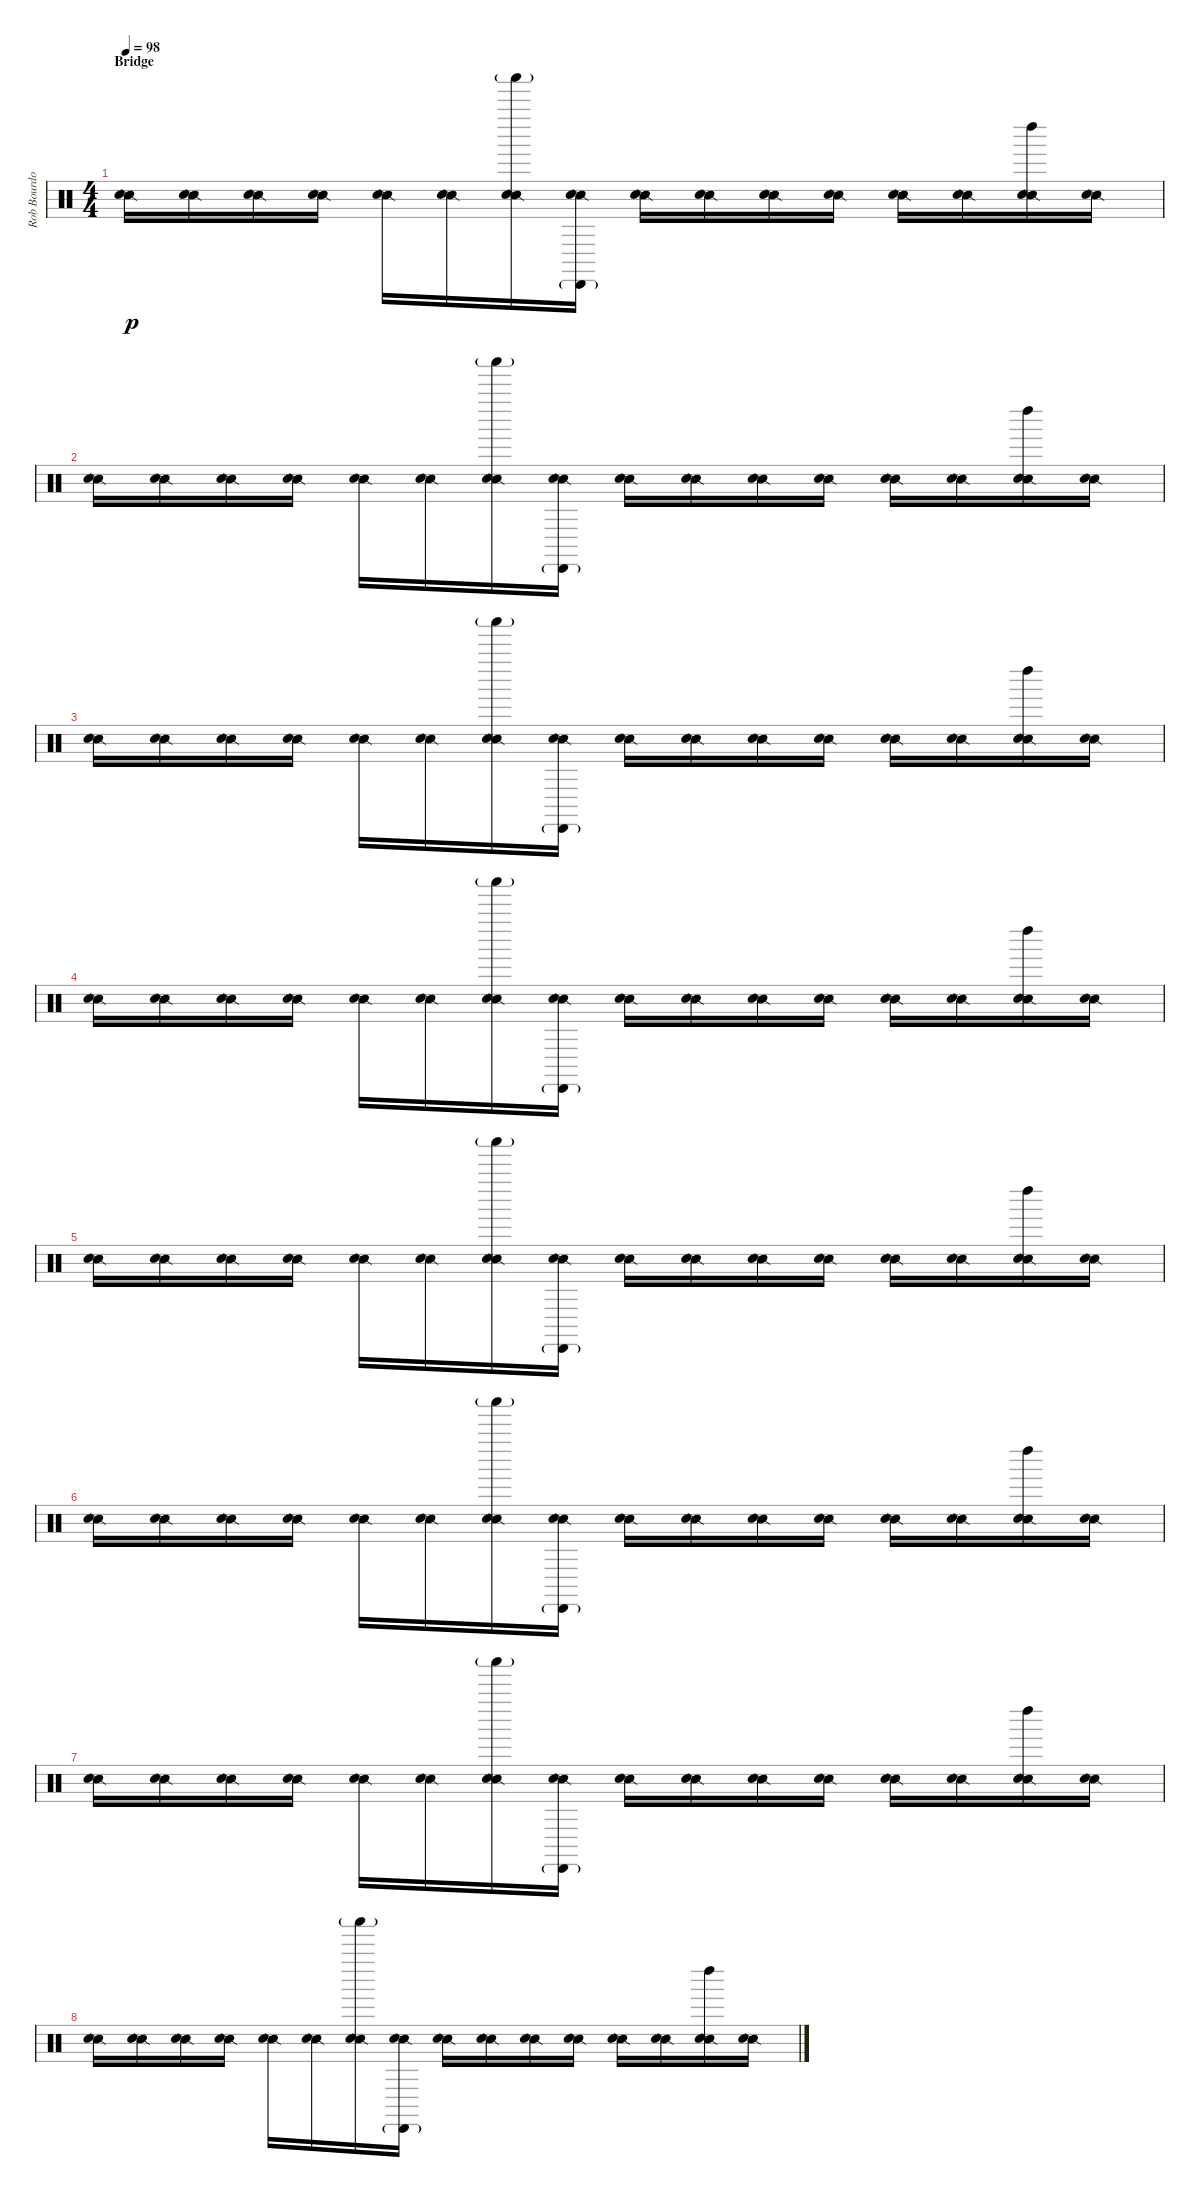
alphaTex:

\track ("Rob Bourdon (Drums)" "Rob Bourdo") {instrument percussion}
\staff {score}
\articulation defaults
\ts (4 4)
\section ("" "Bridge")
\tempo 98
\clef neutral
\ks c
("Snare (side stick) 2" "Hand Clap (hit)").16{dy p} ("Snare (side stick) 2" "Hand Clap (hit)").16 ("Snare (side stick) 2" "Hand Clap (hit)").16 ("Snare (side stick) 2" "Hand Clap (hit)").16 ("Snare (side stick) 2" "Hand Clap (hit)").16 ("Snare (side stick) 2" "Hand Clap (hit)").16 ("Shaker (hit)"{g} "Snare (side stick) 2" "Hand Clap (hit)").16 ("Cabasa (hit)"{g} "Snare (side stick) 2" "Hand Clap (hit)").16 ("Snare (side stick) 2" "Hand Clap (hit)").16 ("Snare (side stick) 2" "Hand Clap (hit)").16 ("Snare (side stick) 2" "Hand Clap (hit)").16 ("Snare (side stick) 2" "Hand Clap (hit)").16 ("Snare (side stick) 2" "Hand Clap (hit)").16 ("Snare (side stick) 2" "Hand Clap (hit)").16 ("Left Maraca (hit)" "Snare (side stick) 2" "Hand Clap (hit)").16 ("Snare (side stick) 2" "Hand Clap (hit)").16 |
("Snare (side stick) 2" "Hand Clap (hit)").16 ("Snare (side stick) 2" "Hand Clap (hit)").16 ("Snare (side stick) 2" "Hand Clap (hit)").16 ("Snare (side stick) 2" "Hand Clap (hit)").16 ("Snare (side stick) 2" "Hand Clap (hit)").16 ("Snare (side stick) 2" "Hand Clap (hit)").16 ("Shaker (hit)"{g} "Snare (side stick) 2" "Hand Clap (hit)").16 ("Cabasa (hit)"{g} "Snare (side stick) 2" "Hand Clap (hit)").16 ("Snare (side stick) 2" "Hand Clap (hit)").16 ("Snare (side stick) 2" "Hand Clap (hit)").16 ("Snare (side stick) 2" "Hand Clap (hit)").16 ("Snare (side stick) 2" "Hand Clap (hit)").16 ("Snare (side stick) 2" "Hand Clap (hit)").16 ("Snare (side stick) 2" "Hand Clap (hit)").16 ("Left Maraca (hit)" "Snare (side stick) 2" "Hand Clap (hit)").16 ("Snare (side stick) 2" "Hand Clap (hit)").16 |
("Snare (side stick) 2" "Hand Clap (hit)").16 ("Snare (side stick) 2" "Hand Clap (hit)").16 ("Snare (side stick) 2" "Hand Clap (hit)").16 ("Snare (side stick) 2" "Hand Clap (hit)").16 ("Snare (side stick) 2" "Hand Clap (hit)").16 ("Snare (side stick) 2" "Hand Clap (hit)").16 ("Shaker (hit)"{g} "Snare (side stick) 2" "Hand Clap (hit)").16 ("Cabasa (hit)"{g} "Snare (side stick) 2" "Hand Clap (hit)").16 ("Snare (side stick) 2" "Hand Clap (hit)").16 ("Snare (side stick) 2" "Hand Clap (hit)").16 ("Snare (side stick) 2" "Hand Clap (hit)").16 ("Snare (side stick) 2" "Hand Clap (hit)").16 ("Snare (side stick) 2" "Hand Clap (hit)").16 ("Snare (side stick) 2" "Hand Clap (hit)").16 ("Left Maraca (hit)" "Snare (side stick) 2" "Hand Clap (hit)").16 ("Snare (side stick) 2" "Hand Clap (hit)").16 |
("Snare (side stick) 2" "Hand Clap (hit)").16 ("Snare (side stick) 2" "Hand Clap (hit)").16 ("Snare (side stick) 2" "Hand Clap (hit)").16 ("Snare (side stick) 2" "Hand Clap (hit)").16 ("Snare (side stick) 2" "Hand Clap (hit)").16 ("Snare (side stick) 2" "Hand Clap (hit)").16 ("Shaker (hit)"{g} "Snare (side stick) 2" "Hand Clap (hit)").16 ("Cabasa (hit)"{g} "Snare (side stick) 2" "Hand Clap (hit)").16 ("Snare (side stick) 2" "Hand Clap (hit)").16 ("Snare (side stick) 2" "Hand Clap (hit)").16 ("Snare (side stick) 2" "Hand Clap (hit)").16 ("Snare (side stick) 2" "Hand Clap (hit)").16 ("Snare (side stick) 2" "Hand Clap (hit)").16 ("Snare (side stick) 2" "Hand Clap (hit)").16 ("Left Maraca (hit)" "Snare (side stick) 2" "Hand Clap (hit)").16 ("Snare (side stick) 2" "Hand Clap (hit)").16 |
("Snare (side stick) 2" "Hand Clap (hit)").16 ("Snare (side stick) 2" "Hand Clap (hit)").16 ("Snare (side stick) 2" "Hand Clap (hit)").16 ("Snare (side stick) 2" "Hand Clap (hit)").16 ("Snare (side stick) 2" "Hand Clap (hit)").16 ("Snare (side stick) 2" "Hand Clap (hit)").16 ("Shaker (hit)"{g} "Snare (side stick) 2" "Hand Clap (hit)").16 ("Cabasa (hit)"{g} "Snare (side stick) 2" "Hand Clap (hit)").16 ("Snare (side stick) 2" "Hand Clap (hit)").16 ("Snare (side stick) 2" "Hand Clap (hit)").16 ("Snare (side stick) 2" "Hand Clap (hit)").16 ("Snare (side stick) 2" "Hand Clap (hit)").16 ("Snare (side stick) 2" "Hand Clap (hit)").16 ("Snare (side stick) 2" "Hand Clap (hit)").16 ("Left Maraca (hit)" "Snare (side stick) 2" "Hand Clap (hit)").16 ("Snare (side stick) 2" "Hand Clap (hit)").16 |
("Snare (side stick) 2" "Hand Clap (hit)").16 ("Snare (side stick) 2" "Hand Clap (hit)").16 ("Snare (side stick) 2" "Hand Clap (hit)").16 ("Snare (side stick) 2" "Hand Clap (hit)").16 ("Snare (side stick) 2" "Hand Clap (hit)").16 ("Snare (side stick) 2" "Hand Clap (hit)").16 ("Shaker (hit)"{g} "Snare (side stick) 2" "Hand Clap (hit)").16 ("Cabasa (hit)"{g} "Snare (side stick) 2" "Hand Clap (hit)").16 ("Snare (side stick) 2" "Hand Clap (hit)").16 ("Snare (side stick) 2" "Hand Clap (hit)").16 ("Snare (side stick) 2" "Hand Clap (hit)").16 ("Snare (side stick) 2" "Hand Clap (hit)").16 ("Snare (side stick) 2" "Hand Clap (hit)").16 ("Snare (side stick) 2" "Hand Clap (hit)").16 ("Left Maraca (hit)" "Snare (side stick) 2" "Hand Clap (hit)").16 ("Snare (side stick) 2" "Hand Clap (hit)").16 |
("Snare (side stick) 2" "Hand Clap (hit)").16 ("Snare (side stick) 2" "Hand Clap (hit)").16 ("Snare (side stick) 2" "Hand Clap (hit)").16 ("Snare (side stick) 2" "Hand Clap (hit)").16 ("Snare (side stick) 2" "Hand Clap (hit)").16 ("Snare (side stick) 2" "Hand Clap (hit)").16 ("Shaker (hit)"{g} "Snare (side stick) 2" "Hand Clap (hit)").16 ("Cabasa (hit)"{g} "Snare (side stick) 2" "Hand Clap (hit)").16 ("Snare (side stick) 2" "Hand Clap (hit)").16 ("Snare (side stick) 2" "Hand Clap (hit)").16 ("Snare (side stick) 2" "Hand Clap (hit)").16 ("Snare (side stick) 2" "Hand Clap (hit)").16 ("Snare (side stick) 2" "Hand Clap (hit)").16 ("Snare (side stick) 2" "Hand Clap (hit)").16 ("Left Maraca (hit)" "Snare (side stick) 2" "Hand Clap (hit)").16 ("Snare (side stick) 2" "Hand Clap (hit)").16 |
("Snare (side stick) 2" "Hand Clap (hit)").16 ("Snare (side stick) 2" "Hand Clap (hit)").16 ("Snare (side stick) 2" "Hand Clap (hit)").16 ("Snare (side stick) 2" "Hand Clap (hit)").16 ("Snare (side stick) 2" "Hand Clap (hit)").16 ("Snare (side stick) 2" "Hand Clap (hit)").16 ("Shaker (hit)"{g} "Snare (side stick) 2" "Hand Clap (hit)").16 ("Cabasa (hit)"{g} "Snare (side stick) 2" "Hand Clap (hit)").16 ("Snare (side stick) 2" "Hand Clap (hit)").16 ("Snare (side stick) 2" "Hand Clap (hit)").16 ("Snare (side stick) 2" "Hand Clap (hit)").16 ("Snare (side stick) 2" "Hand Clap (hit)").16 ("Snare (side stick) 2" "Hand Clap (hit)").16 ("Snare (side stick) 2" "Hand Clap (hit)").16 ("Left Maraca (hit)" "Snare (side stick) 2" "Hand Clap (hit)").16 ("Snare (side stick) 2" "Hand Clap (hit)").16
